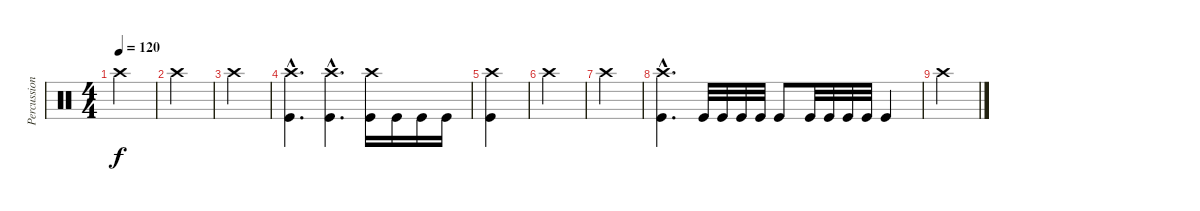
\track ("Percussion" "Percussion") {instrument percussion}
\staff {score}
\articulation defaults
\ts (4 4)
\tempo 120
\clef neutral
\ks c "Crash high (hit)".4{dy f}
|
"Crash high (hit)".4 |
"Crash high (hit)".4 |
("Kick (hit)"{hac} "Crash high (hit)"{hac}).4{d} ("Kick (hit)"{hac} "Crash high (hit)"{hac}).4{d} ("Kick (hit)" "Crash high (hit)").16 "Kick (hit)".16 "Kick (hit)".16 "Kick (hit)".16 |
("Kick (hit)" "Crash high (hit)").4 |
"Crash high (hit)".4 |
"Crash high (hit)".4 |
("Kick (hit)"{hac} "Crash high (hit)"{hac}).4{d} "Kick (hit)".32 "Kick (hit)".32 "Kick (hit)".32 "Kick (hit)".32 "Kick (hit)".8 "Kick (hit)".32 "Kick (hit)".32 "Kick (hit)".32 "Kick (hit)".32 "Kick (hit)".4 |
"Crash high (hit)".4
